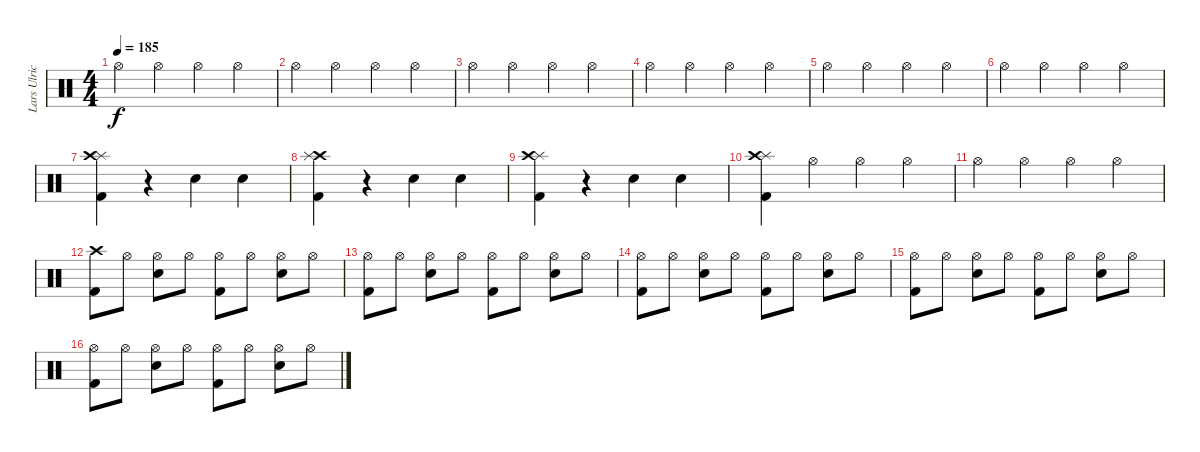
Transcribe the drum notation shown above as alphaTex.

\track ("Lars Ulrich" "Lars Ulric") {instrument percussion}
\staff {score}
\articulation defaults
\ts (4 4)
\tempo 185
\clef neutral
\ks c "Hi-Hat (open)".4{dy f} "Hi-Hat (open)".4 "Hi-Hat (open)".4 "Hi-Hat (open)".4
|
"Hi-Hat (open)".4 "Hi-Hat (open)".4 "Hi-Hat (open)".4 "Hi-Hat (open)".4 |
"Hi-Hat (open)".4 "Hi-Hat (open)".4 "Hi-Hat (open)".4 "Hi-Hat (open)".4 |
"Hi-Hat (open)".4 "Hi-Hat (open)".4 "Hi-Hat (open)".4 "Hi-Hat (open)".4 |
"Hi-Hat (open)".4 "Hi-Hat (open)".4 "Hi-Hat (open)".4 "Hi-Hat (open)".4 |
"Hi-Hat (open)".4 "Hi-Hat (open)".4 "Hi-Hat (open)".4 "Hi-Hat (open)".4 |
("Splash (hit)" "Crash high (hit)" "Kick (hit) 2").4 r.4 "Snare (hit) 2".4 "Snare (hit) 2".4 |
("Kick (hit) 2" "Crash high (hit)" "Splash (hit)").4 r.4 "Snare (hit) 2".4 "Snare (hit) 2".4 |
("Kick (hit) 2" "Splash (hit)" "Crash high (hit)").4 r.4 "Snare (hit) 2".4 "Snare (hit) 2".4 |
("Splash (hit)" "Crash high (hit)" "Kick (hit) 2").4 "Hi-Hat (open)".4 "Hi-Hat (open)".4 "Hi-Hat (open)".4 |
"Hi-Hat (open)".4 "Hi-Hat (open)".4 "Hi-Hat (open)".4 "Hi-Hat (open)".4 |
("Kick (hit) 2" "Crash high (hit)").8 "Hi-Hat (open)".8 ("Snare (hit) 2" "Hi-Hat (open)").8 "Hi-Hat (open)".8 ("Kick (hit) 2" "Hi-Hat (open)").8 "Hi-Hat (open)".8 ("Snare (hit) 2" "Hi-Hat (open)").8 "Hi-Hat (open)".8 |
("Kick (hit) 2" "Hi-Hat (open)").8 "Hi-Hat (open)".8 ("Snare (hit) 2" "Hi-Hat (open)").8 "Hi-Hat (open)".8 ("Kick (hit) 2" "Hi-Hat (open)").8 "Hi-Hat (open)".8 ("Snare (hit) 2" "Hi-Hat (open)").8 "Hi-Hat (open)".8 |
("Kick (hit) 2" "Hi-Hat (open)").8 "Hi-Hat (open)".8 ("Snare (hit) 2" "Hi-Hat (open)").8 "Hi-Hat (open)".8 ("Kick (hit) 2" "Hi-Hat (open)").8 "Hi-Hat (open)".8 ("Snare (hit) 2" "Hi-Hat (open)").8 "Hi-Hat (open)".8 |
("Kick (hit) 2" "Hi-Hat (open)").8 "Hi-Hat (open)".8 ("Snare (hit) 2" "Hi-Hat (open)").8 "Hi-Hat (open)".8 ("Kick (hit) 2" "Hi-Hat (open)").8 "Hi-Hat (open)".8 ("Snare (hit) 2" "Hi-Hat (open)").8 "Hi-Hat (open)".8 |
("Kick (hit) 2" "Hi-Hat (open)").8 "Hi-Hat (open)".8 ("Snare (hit) 2" "Hi-Hat (open)").8 "Hi-Hat (open)".8 ("Kick (hit) 2" "Hi-Hat (open)").8 "Hi-Hat (open)".8 ("Snare (hit) 2" "Hi-Hat (open)").8 "Hi-Hat (open)".8
